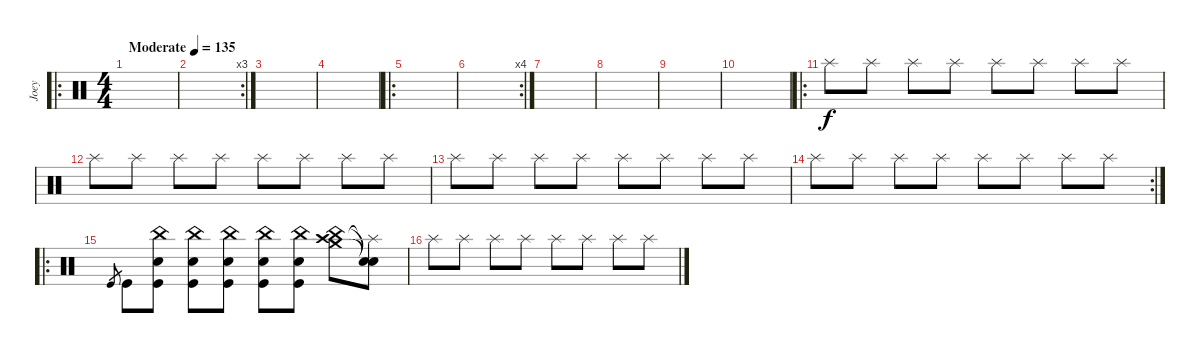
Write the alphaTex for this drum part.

\track ("Joey" "Joey") {instrument percussion}
\staff {score}
\articulation defaults
\ro
\ts (4 4)
\tempo (135 "Moderate")
\clef neutral
\ks c
|
\rc 3
|
|
|
\ro
|
\rc 4
|
|
|
|
|
\ro "Splash (hit)".8 "Splash (hit)".8 "Splash (hit)".8 "Splash (hit)".8 "Splash (hit)".8 "Splash (hit)".8 "Splash (hit)".8 "Splash (hit)".8
|
"Splash (hit)".8 "Splash (hit)".8 "Splash (hit)".8 "Splash (hit)".8 "Splash (hit)".8 "Splash (hit)".8 "Splash (hit)".8 "Splash (hit)".8 |
"Splash (hit)".8 "Splash (hit)".8 "Splash (hit)".8 "Splash (hit)".8 "Splash (hit)".8 "Splash (hit)".8 "Splash (hit)".8 "Splash (hit)".8 |
\rc 2 "Splash (hit)".8 "Splash (hit)".8 "Splash (hit)".8 "Splash (hit)".8 "Splash (hit)".8 "Splash (hit)".8 "Splash (hit)".8 "Splash (hit)".8
|
\ro "Kick (hit)".8{gr} "Kick (hit)".8
("Kick (hit)" "Snare (hit) 2" "China (hit)").8 ("Kick (hit)" "Snare (hit) 2" "China (hit)").8 ("Kick (hit)" "Snare (hit) 2" "China (hit)").8 ("Kick (hit)" "Snare (hit) 2" "China (hit)").8 ("Kick (hit)" "Snare (hit) 2" "China (hit)").8 ("Crash medium (hit)" "Crash high (hit)" "China (hit)").8 ("Snare (hit)"{t} "Splash (hit)"{t} "Snare (hit)"{t}).8 |
"Splash (hit)".8 "Splash (hit)".8 "Splash (hit)".8 "Splash (hit)".8 "Splash (hit)".8 "Splash (hit)".8 "Splash (hit)".8 "Splash (hit)".8
